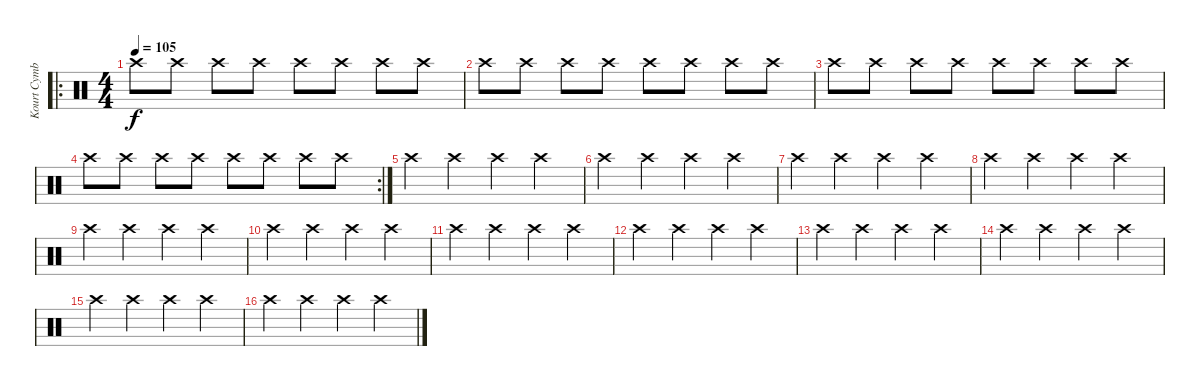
\track ("Kourt Cymbales" "Kourt Cymb") {instrument percussion}
\staff {score}
\articulation defaults
\ro
\ts (4 4)
\tempo 105
\clef neutral
\ks c "Crash high (hit)".8{dy f} "Crash high (hit)".8 "Crash high (hit)".8 "Crash high (hit)".8 "Crash high (hit)".8 "Crash high (hit)".8 "Crash high (hit)".8 "Crash high (hit)".8
|
"Crash high (hit)".8 "Crash high (hit)".8 "Crash high (hit)".8 "Crash high (hit)".8 "Crash high (hit)".8 "Crash high (hit)".8 "Crash high (hit)".8 "Crash high (hit)".8 |
"Crash high (hit)".8 "Crash high (hit)".8 "Crash high (hit)".8 "Crash high (hit)".8 "Crash high (hit)".8 "Crash high (hit)".8 "Crash high (hit)".8 "Crash high (hit)".8 |
\rc 2 "Crash high (hit)".8 "Crash high (hit)".8 "Crash high (hit)".8 "Crash high (hit)".8 "Crash high (hit)".8 "Crash high (hit)".8 "Crash high (hit)".8 "Crash high (hit)".8
|
"Crash high (hit)".4 "Crash high (hit)".4 "Crash high (hit)".4 "Crash high (hit)".4 |
"Crash high (hit)".4 "Crash high (hit)".4 "Crash high (hit)".4 "Crash high (hit)".4 |
"Crash high (hit)".4 "Crash high (hit)".4 "Crash high (hit)".4 "Crash high (hit)".4 |
"Crash high (hit)".4 "Crash high (hit)".4 "Crash high (hit)".4 "Crash high (hit)".4 |
"Crash high (hit)".4 "Crash high (hit)".4 "Crash high (hit)".4 "Crash high (hit)".4 |
"Crash high (hit)".4 "Crash high (hit)".4 "Crash high (hit)".4 "Crash high (hit)".4 |
"Crash high (hit)".4 "Crash high (hit)".4 "Crash high (hit)".4 "Crash high (hit)".4 |
"Crash high (hit)".4 "Crash high (hit)".4 "Crash high (hit)".4 "Crash high (hit)".4 |
"Crash high (hit)".4 "Crash high (hit)".4 "Crash high (hit)".4 "Crash high (hit)".4 |
"Crash high (hit)".4 "Crash high (hit)".4 "Crash high (hit)".4 "Crash high (hit)".4 |
"Crash high (hit)".4 "Crash high (hit)".4 "Crash high (hit)".4 "Crash high (hit)".4 |
"Crash high (hit)".4 "Crash high (hit)".4 "Crash high (hit)".4 "Crash high (hit)".4
